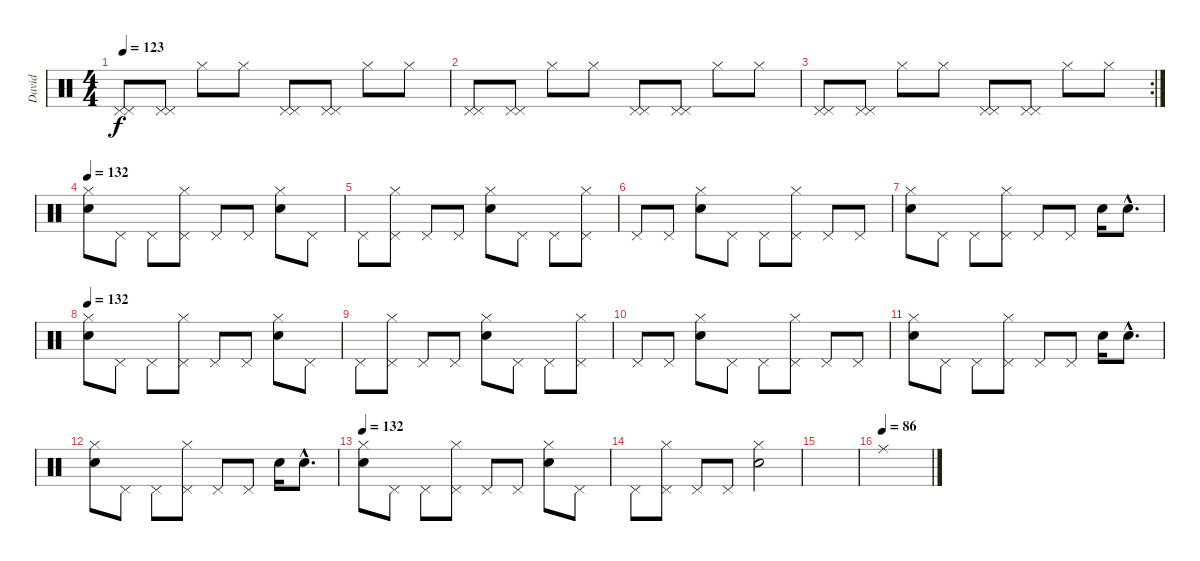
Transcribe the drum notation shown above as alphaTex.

\track ("David" "David") {instrument percussion}
\staff {score}
\articulation defaults
\ts (4 4)
\tempo 123
\clef neutral
\ks c
("Pedal Hi-Hat (hit)" "Pedal Hi-Hat (hit)").8{dy f} ("Pedal Hi-Hat (hit)" "Pedal Hi-Hat (hit)").8 "Hi-Hat (closed)".8 "Hi-Hat (closed)".8 ("Pedal Hi-Hat (hit)" "Pedal Hi-Hat (hit)").8 ("Pedal Hi-Hat (hit)" "Pedal Hi-Hat (hit)").8 "Hi-Hat (closed)".8 "Hi-Hat (closed)".8 |
("Pedal Hi-Hat (hit)" "Pedal Hi-Hat (hit)").8 ("Pedal Hi-Hat (hit)" "Pedal Hi-Hat (hit)").8 "Hi-Hat (closed)".8 "Hi-Hat (closed)".8 ("Pedal Hi-Hat (hit)" "Pedal Hi-Hat (hit)").8 ("Pedal Hi-Hat (hit)" "Pedal Hi-Hat (hit)").8 "Hi-Hat (closed)".8 "Hi-Hat (closed)".8 |
\rc 2
("Pedal Hi-Hat (hit)" "Pedal Hi-Hat (hit)").8 ("Pedal Hi-Hat (hit)" "Pedal Hi-Hat (hit)").8 "Hi-Hat (closed)".8 "Hi-Hat (closed)".8 ("Pedal Hi-Hat (hit)" "Pedal Hi-Hat (hit)").8 ("Pedal Hi-Hat (hit)" "Pedal Hi-Hat (hit)").8 "Hi-Hat (closed)".8 "Hi-Hat (closed)".8 |
\tempo 132
("Hi-Hat (closed)" "Electric Snare (hit)").8 "Pedal Hi-Hat (hit)".8 "Pedal Hi-Hat (hit)".8 ("Hi-Hat (closed)" "Pedal Hi-Hat (hit)").8 "Pedal Hi-Hat (hit)".8 "Pedal Hi-Hat (hit)".8 ("Hi-Hat (closed)" "Electric Snare (hit)").8 "Pedal Hi-Hat (hit)".8 |
"Pedal Hi-Hat (hit)".8 ("Hi-Hat (closed)" "Pedal Hi-Hat (hit)").8 "Pedal Hi-Hat (hit)".8 "Pedal Hi-Hat (hit)".8 ("Hi-Hat (closed)" "Electric Snare (hit)").8 "Pedal Hi-Hat (hit)".8 "Pedal Hi-Hat (hit)".8 ("Hi-Hat (closed)" "Pedal Hi-Hat (hit)").8 |
"Pedal Hi-Hat (hit)".8 "Pedal Hi-Hat (hit)".8 ("Hi-Hat (closed)" "Electric Snare (hit)").8 "Pedal Hi-Hat (hit)".8 "Pedal Hi-Hat (hit)".8 ("Hi-Hat (closed)" "Pedal Hi-Hat (hit)").8 "Pedal Hi-Hat (hit)".8 "Pedal Hi-Hat (hit)".8 |
("Hi-Hat (closed)" "Electric Snare (hit)").8 "Pedal Hi-Hat (hit)".8 "Pedal Hi-Hat (hit)".8 ("Hi-Hat (closed)" "Pedal Hi-Hat (hit)").8 "Pedal Hi-Hat (hit)".8 "Pedal Hi-Hat (hit)".8 "Snare (hit) 2".16 "Snare (hit) 2"{hac}.8{d} |
\tempo 132
("Hi-Hat (closed)" "Electric Snare (hit)").8 "Pedal Hi-Hat (hit)".8 "Pedal Hi-Hat (hit)".8 ("Hi-Hat (closed)" "Pedal Hi-Hat (hit)").8 "Pedal Hi-Hat (hit)".8 "Pedal Hi-Hat (hit)".8 ("Hi-Hat (closed)" "Electric Snare (hit)").8 "Pedal Hi-Hat (hit)".8 |
"Pedal Hi-Hat (hit)".8 ("Hi-Hat (closed)" "Pedal Hi-Hat (hit)").8 "Pedal Hi-Hat (hit)".8 "Pedal Hi-Hat (hit)".8 ("Hi-Hat (closed)" "Electric Snare (hit)").8 "Pedal Hi-Hat (hit)".8 "Pedal Hi-Hat (hit)".8 ("Hi-Hat (closed)" "Pedal Hi-Hat (hit)").8 |
"Pedal Hi-Hat (hit)".8 "Pedal Hi-Hat (hit)".8 ("Hi-Hat (closed)" "Electric Snare (hit)").8 "Pedal Hi-Hat (hit)".8 "Pedal Hi-Hat (hit)".8 ("Hi-Hat (closed)" "Pedal Hi-Hat (hit)").8 "Pedal Hi-Hat (hit)".8 "Pedal Hi-Hat (hit)".8 |
("Hi-Hat (closed)" "Electric Snare (hit)").8 "Pedal Hi-Hat (hit)".8 "Pedal Hi-Hat (hit)".8 ("Hi-Hat (closed)" "Pedal Hi-Hat (hit)").8 "Pedal Hi-Hat (hit)".8 "Pedal Hi-Hat (hit)".8 "Snare (hit) 2".16 "Snare (hit) 2"{hac}.8{d} |
("Hi-Hat (closed)" "Electric Snare (hit)").8 "Pedal Hi-Hat (hit)".8 "Pedal Hi-Hat (hit)".8 ("Hi-Hat (closed)" "Pedal Hi-Hat (hit)").8 "Pedal Hi-Hat (hit)".8 "Pedal Hi-Hat (hit)".8 "Snare (hit) 2".16 "Snare (hit) 2"{hac}.8{d} |
\tempo 132
("Hi-Hat (closed)" "Electric Snare (hit)").8 "Pedal Hi-Hat (hit)".8 "Pedal Hi-Hat (hit)".8 ("Hi-Hat (closed)" "Pedal Hi-Hat (hit)").8 "Pedal Hi-Hat (hit)".8 "Pedal Hi-Hat (hit)".8 ("Hi-Hat (closed)" "Electric Snare (hit)").8 "Pedal Hi-Hat (hit)".8 |
"Pedal Hi-Hat (hit)".8 ("Hi-Hat (closed)" "Pedal Hi-Hat (hit)").8 "Pedal Hi-Hat (hit)".8 "Pedal Hi-Hat (hit)".8 ("Hi-Hat (closed)" "Electric Snare (hit)").2 |
|
\tempo (86)
"Ride (middle)".1
